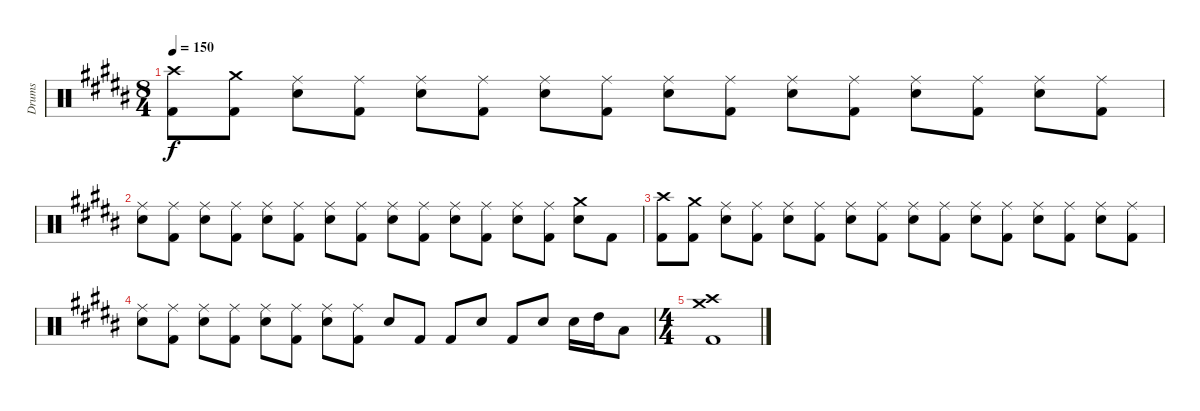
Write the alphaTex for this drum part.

\track ("Drums" "Drums") {instrument percussion}
\staff {score}
\articulation defaults
\ts (8 4)
\tempo 150
\clef neutral
\ks g#minor
("Crash high (hit)" "Kick (hit) 2").8{dy f} ("Crash medium (hit)" "Kick (hit) 2").8 ("Ride (middle)" "Snare (hit) 2").8 ("Ride (middle)" "Kick (hit) 2").8 ("Ride (middle)" "Snare (hit) 2").8 ("Ride (middle)" "Kick (hit) 2").8 ("Ride (middle)" "Snare (hit) 2").8 ("Ride (middle)" "Kick (hit) 2").8 ("Ride (middle)" "Snare (hit) 2").8 ("Ride (middle)" "Kick (hit) 2").8 ("Ride (middle)" "Snare (hit) 2").8 ("Ride (middle)" "Kick (hit) 2").8 ("Ride (middle)" "Snare (hit) 2").8 ("Ride (middle)" "Kick (hit) 2").8 ("Ride (middle)" "Snare (hit) 2").8 ("Ride (middle)" "Kick (hit) 2").8 |
("Ride (middle)" "Snare (hit) 2").8 ("Ride (middle)" "Kick (hit) 2").8 ("Ride (middle)" "Snare (hit) 2").8 ("Ride (middle)" "Kick (hit) 2").8 ("Ride (middle)" "Snare (hit) 2").8 ("Ride (middle)" "Kick (hit) 2").8 ("Ride (middle)" "Snare (hit) 2").8 ("Ride (middle)" "Kick (hit) 2").8 ("Ride (middle)" "Snare (hit) 2").8 ("Ride (middle)" "Kick (hit) 2").8 ("Ride (middle)" "Snare (hit) 2").8 ("Ride (middle)" "Kick (hit) 2").8 ("Ride (middle)" "Snare (hit) 2").8 ("Ride (middle)" "Kick (hit) 2").8 ("Crash medium (hit)" "Snare (hit) 2").8 "Kick (hit) 2".8 |
("Crash high (hit)" "Kick (hit) 2").8 ("Crash medium (hit)" "Kick (hit) 2").8 ("Ride (middle)" "Snare (hit) 2").8 ("Ride (middle)" "Kick (hit) 2").8 ("Ride (middle)" "Snare (hit) 2").8 ("Ride (middle)" "Kick (hit) 2").8 ("Ride (middle)" "Snare (hit) 2").8 ("Ride (middle)" "Kick (hit) 2").8 ("Ride (middle)" "Snare (hit) 2").8 ("Ride (middle)" "Kick (hit) 2").8 ("Ride (middle)" "Snare (hit) 2").8 ("Ride (middle)" "Kick (hit) 2").8 ("Ride (middle)" "Snare (hit) 2").8 ("Ride (middle)" "Kick (hit) 2").8 ("Ride (middle)" "Snare (hit) 2").8 ("Ride (middle)" "Kick (hit) 2").8 |
("Ride (middle)" "Snare (hit) 2").8 ("Ride (middle)" "Kick (hit) 2").8 ("Ride (middle)" "Snare (hit) 2").8 ("Ride (middle)" "Kick (hit) 2").8 ("Ride (middle)" "Snare (hit) 2").8 ("Ride (middle)" "Kick (hit) 2").8 ("Ride (middle)" "Snare (hit) 2").8 ("Ride (middle)" "Kick (hit) 2").8 "Snare (hit) 2".8 "Kick (hit) 2".8 "Kick (hit) 2".8 "Snare (hit) 2".8 "Kick (hit) 2".8 "Snare (hit) 2".8 "Snare (hit) 2".16 "High Tom (hit)".16 "Low Tom (hit)".8 |
\ts (4 4)
("Crash medium (hit)" "Crash high (hit)" "Kick (hit) 2").1
